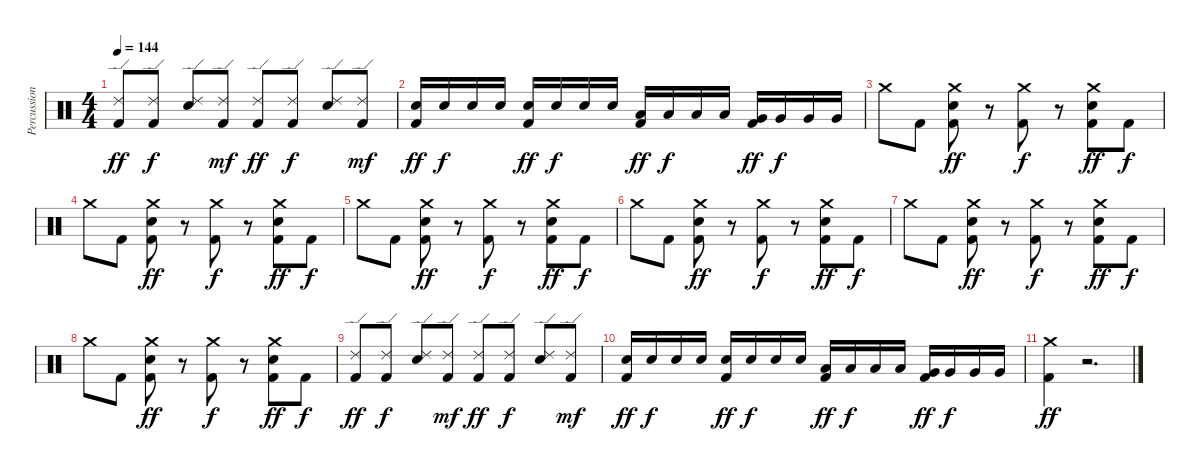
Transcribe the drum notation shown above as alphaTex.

\track ("Percussion" "Percussion") {instrument percussion}
\staff {score}
\articulation defaults
\ts (4 4)
\tempo 144
\clef neutral
\ks c
("Ride (edge) 2" "Kick (hit) 2").8{dy ff} ("Ride (edge) 2" "Kick (hit) 2").8{dy f} ("Ride (edge) 2" "Snare (hit) 2").8 ("Ride (edge) 2" "Kick (hit) 2").8{dy mf} ("Ride (edge) 2" "Kick (hit) 2").8{dy ff} ("Ride (edge) 2" "Kick (hit) 2").8{dy f} ("Ride (edge) 2" "Snare (hit) 2").8 ("Ride (edge) 2" "Kick (hit) 2").8{dy mf} |
("Snare (hit) 2" "Kick (hit) 2").16{dy ff} "Snare (hit) 2".16{dy f} "Snare (hit) 2".16 "Snare (hit) 2".16 ("Snare (hit) 2" "Kick (hit) 2").16{dy ff} "Snare (hit) 2".16{dy f} "Snare (hit) 2".16 "Snare (hit) 2".16 ("Low Tom (hit)" "Kick (hit) 2").16{dy ff} "Low Tom (hit)".16{dy f} "Low Tom (hit)".16 "Low Tom (hit)".16 ("Very Low Tom (hit)" "Kick (hit) 2").16{dy ff} "Very Low Tom (hit)".16{dy f} "Very Low Tom (hit)".16 "Very Low Tom (hit)".16 |
"Crash medium (hit)".8 "Kick (hit) 2".8 ("Crash medium (hit)" "Snare (hit) 2" "Kick (hit) 2").8{dy ff} r.8 ("Crash medium (hit)" "Kick (hit) 2").8{dy f} r.8 ("Crash medium (hit)" "Snare (hit) 2" "Kick (hit) 2").8{dy ff} "Kick (hit) 2".8{dy f} |
"Crash medium (hit)".8 "Kick (hit) 2".8 ("Crash medium (hit)" "Snare (hit) 2" "Kick (hit) 2").8{dy ff} r.8 ("Crash medium (hit)" "Kick (hit) 2").8{dy f} r.8 ("Crash medium (hit)" "Snare (hit) 2" "Kick (hit) 2").8{dy ff} "Kick (hit) 2".8{dy f} |
"Crash medium (hit)".8 "Kick (hit) 2".8 ("Crash medium (hit)" "Snare (hit) 2" "Kick (hit) 2").8{dy ff} r.8 ("Crash medium (hit)" "Kick (hit) 2").8{dy f} r.8 ("Crash medium (hit)" "Snare (hit) 2" "Kick (hit) 2").8{dy ff} "Kick (hit) 2".8{dy f} |
"Crash medium (hit)".8 "Kick (hit) 2".8 ("Crash medium (hit)" "Snare (hit) 2" "Kick (hit) 2").8{dy ff} r.8 ("Crash medium (hit)" "Kick (hit) 2").8{dy f} r.8 ("Crash medium (hit)" "Snare (hit) 2" "Kick (hit) 2").8{dy ff} "Kick (hit) 2".8{dy f} |
"Crash medium (hit)".8 "Kick (hit) 2".8 ("Crash medium (hit)" "Snare (hit) 2" "Kick (hit) 2").8{dy ff} r.8 ("Crash medium (hit)" "Kick (hit) 2").8{dy f} r.8 ("Crash medium (hit)" "Snare (hit) 2" "Kick (hit) 2").8{dy ff} "Kick (hit) 2".8{dy f} |
"Crash medium (hit)".8 "Kick (hit) 2".8 ("Crash medium (hit)" "Snare (hit) 2" "Kick (hit) 2").8{dy ff} r.8 ("Crash medium (hit)" "Kick (hit) 2").8{dy f} r.8 ("Crash medium (hit)" "Snare (hit) 2" "Kick (hit) 2").8{dy ff} "Kick (hit) 2".8{dy f} |
("Ride (edge) 2" "Kick (hit) 2").8{dy ff} ("Ride (edge) 2" "Kick (hit) 2").8{dy f} ("Ride (edge) 2" "Snare (hit) 2").8 ("Ride (edge) 2" "Kick (hit) 2").8{dy mf} ("Ride (edge) 2" "Kick (hit) 2").8{dy ff} ("Ride (edge) 2" "Kick (hit) 2").8{dy f} ("Ride (edge) 2" "Snare (hit) 2").8 ("Ride (edge) 2" "Kick (hit) 2").8{dy mf} |
("Snare (hit) 2" "Kick (hit) 2").16{dy ff} "Snare (hit) 2".16{dy f} "Snare (hit) 2".16 "Snare (hit) 2".16 ("Snare (hit) 2" "Kick (hit) 2").16{dy ff} "Snare (hit) 2".16{dy f} "Snare (hit) 2".16 "Snare (hit) 2".16 ("Low Tom (hit)" "Kick (hit) 2").16{dy ff} "Low Tom (hit)".16{dy f} "Low Tom (hit)".16 "Low Tom (hit)".16 ("Very Low Tom (hit)" "Kick (hit) 2").16{dy ff} "Very Low Tom (hit)".16{dy f} "Very Low Tom (hit)".16 "Very Low Tom (hit)".16 |
("Crash medium (hit)" "Kick (hit) 2").4{dy ff} r.2{d}
